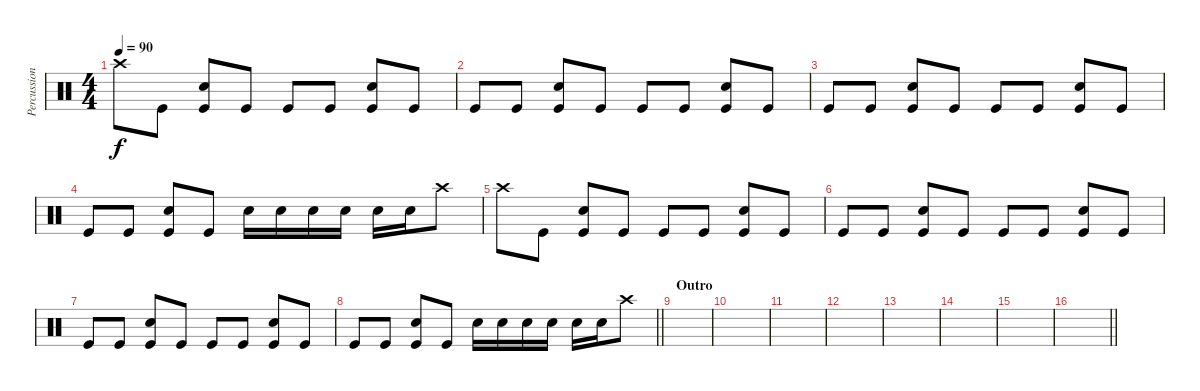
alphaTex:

\track ("Percussion" "Percussion") {instrument percussion}
\staff {score}
\articulation defaults
\ts (4 4)
\tempo 90
\clef neutral
\ks c "Crash high (hit)".8{dy f} "Kick (hit)".8
("Kick (hit)" "Snare (hit) 2").8 "Kick (hit)".8 "Kick (hit)".8 "Kick (hit)".8 ("Kick (hit)" "Snare (hit) 2").8 "Kick (hit)".8 |
"Kick (hit)".8 "Kick (hit)".8 ("Kick (hit)" "Snare (hit) 2").8 "Kick (hit)".8 "Kick (hit)".8 "Kick (hit)".8 ("Kick (hit)" "Snare (hit) 2").8 "Kick (hit)".8 |
"Kick (hit)".8 "Kick (hit)".8 ("Kick (hit)" "Snare (hit) 2").8 "Kick (hit)".8 "Kick (hit)".8 "Kick (hit)".8 ("Kick (hit)" "Snare (hit) 2").8 "Kick (hit)".8 |
"Kick (hit)".8 "Kick (hit)".8 ("Kick (hit)" "Snare (hit) 2").8 "Kick (hit)".8 "Snare (hit) 2".16 "Electric Snare (hit)".16 "Snare (hit) 2".16 "Electric Snare (hit)".16 "Snare (hit) 2".16 "Electric Snare (hit)".16 "Crash high (hit)".8 |
"Crash high (hit)".8 "Kick (hit)".8 ("Kick (hit)" "Snare (hit) 2").8 "Kick (hit)".8 "Kick (hit)".8 "Kick (hit)".8 ("Kick (hit)" "Snare (hit) 2").8 "Kick (hit)".8 |
"Kick (hit)".8 "Kick (hit)".8 ("Kick (hit)" "Snare (hit) 2").8 "Kick (hit)".8 "Kick (hit)".8 "Kick (hit)".8 ("Kick (hit)" "Snare (hit) 2").8 "Kick (hit)".8 |
"Kick (hit)".8 "Kick (hit)".8 ("Kick (hit)" "Snare (hit) 2").8 "Kick (hit)".8 "Kick (hit)".8 "Kick (hit)".8 ("Kick (hit)" "Snare (hit) 2").8 "Kick (hit)".8 |
\barLineRight lightlight "Kick (hit)".8 "Kick (hit)".8
("Kick (hit)" "Snare (hit) 2").8 "Kick (hit)".8 "Snare (hit) 2".16 "Electric Snare (hit)".16 "Snare (hit) 2".16 "Electric Snare (hit)".16 "Snare (hit) 2".16 "Electric Snare (hit)".16 "Crash high (hit)".8 |
\section ("" "Outro")
|
|
|
|
|
|
|
\barLineRight lightlight
